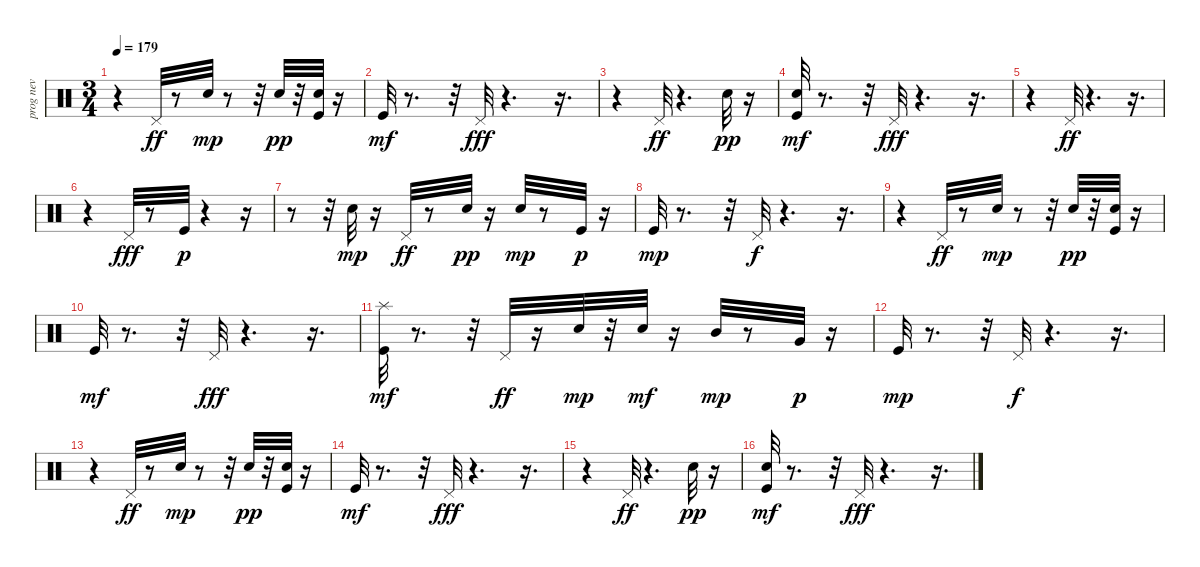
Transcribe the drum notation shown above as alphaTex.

\track ("prog nev" "prog nev") {instrument percussion}
\staff {score}
\articulation defaults
\ts (3 4)
\tempo 179
\clef neutral
\ks c
r.4{dy f} "Pedal Hi-Hat (hit)".32{dy ff} r.8 "Hand Clap (hit)".32{dy mp} r.8 r.32 "Snare (hit) 2".32{dy pp} r.32 ("Kick (hit)" "Snare (hit) 2").32 r.16 |
"Kick (hit)".32{dy mf} r.8{d} r.32 "Pedal Hi-Hat (hit)".32{dy fff} r.4{d} r.16{d} |
r.4 "Pedal Hi-Hat (hit)".32{dy ff} r.4{d} "Snare (hit) 2".32{dy pp} r.16 |
("Kick (hit)" "Snare (hit) 2").32{dy mf} r.8{d} r.32 "Pedal Hi-Hat (hit)".32{dy fff} r.4{d} r.16{d} |
r.4 "Pedal Hi-Hat (hit)".32{dy ff} r.4{d} r.16{d} |
r.4 "Pedal Hi-Hat (hit)".32{dy fff} r.8 "Kick (hit)".32{dy p} r.4 r.16 |
r.8 r.32 "Snare (hit) 2".32{dy mp} r.16 "Pedal Hi-Hat (hit)".32{dy ff} r.8 "Snare (hit) 2".32{dy pp} r.16 "Hand Clap (hit)".32{dy mp} r.8 "Kick (hit)".32{dy p} r.16 |
"Kick (hit)".32{dy mp} r.8{d} r.32 "Pedal Hi-Hat (hit)".32{dy f} r.4{d} r.16{d} |
r.4 "Pedal Hi-Hat (hit)".32{dy ff} r.8 "Hand Clap (hit)".32{dy mp} r.8 r.32 "Snare (hit) 2".32{dy pp} r.32 ("Kick (hit)" "Snare (hit) 2").32 r.16 |
"Kick (hit)".32{dy mf} r.8{d} r.32 "Pedal Hi-Hat (hit)".32{dy fff} r.4{d} r.16{d} |
("Kick (hit)" "Splash (hit)").32{dy mf} r.8{d} r.32 "Pedal Hi-Hat (hit)".32{dy ff} r.16 "Snare (hit) 2".32{dy mp} r.32 "Hand Clap (hit)".32{dy mf} r.16 "Mid Tom (hit)".32{dy mp} r.8 "Very Low Tom (hit)".32{dy p} r.16 |
"Kick (hit)".32{dy mp} r.8{d} r.32 "Pedal Hi-Hat (hit)".32{dy f} r.4{d} r.16{d} |
r.4 "Pedal Hi-Hat (hit)".32{dy ff} r.8 "Hand Clap (hit)".32{dy mp} r.8 r.32 "Snare (hit) 2".32{dy pp} r.32 ("Kick (hit)" "Snare (hit) 2").32 r.16 |
"Kick (hit)".32{dy mf} r.8{d} r.32 "Pedal Hi-Hat (hit)".32{dy fff} r.4{d} r.16{d} |
r.4 "Pedal Hi-Hat (hit)".32{dy ff} r.4{d} "Snare (hit) 2".32{dy pp} r.16 |
("Kick (hit)" "Snare (hit) 2").32{dy mf} r.8{d} r.32 "Pedal Hi-Hat (hit)".32{dy fff} r.4{d} r.16{d}
